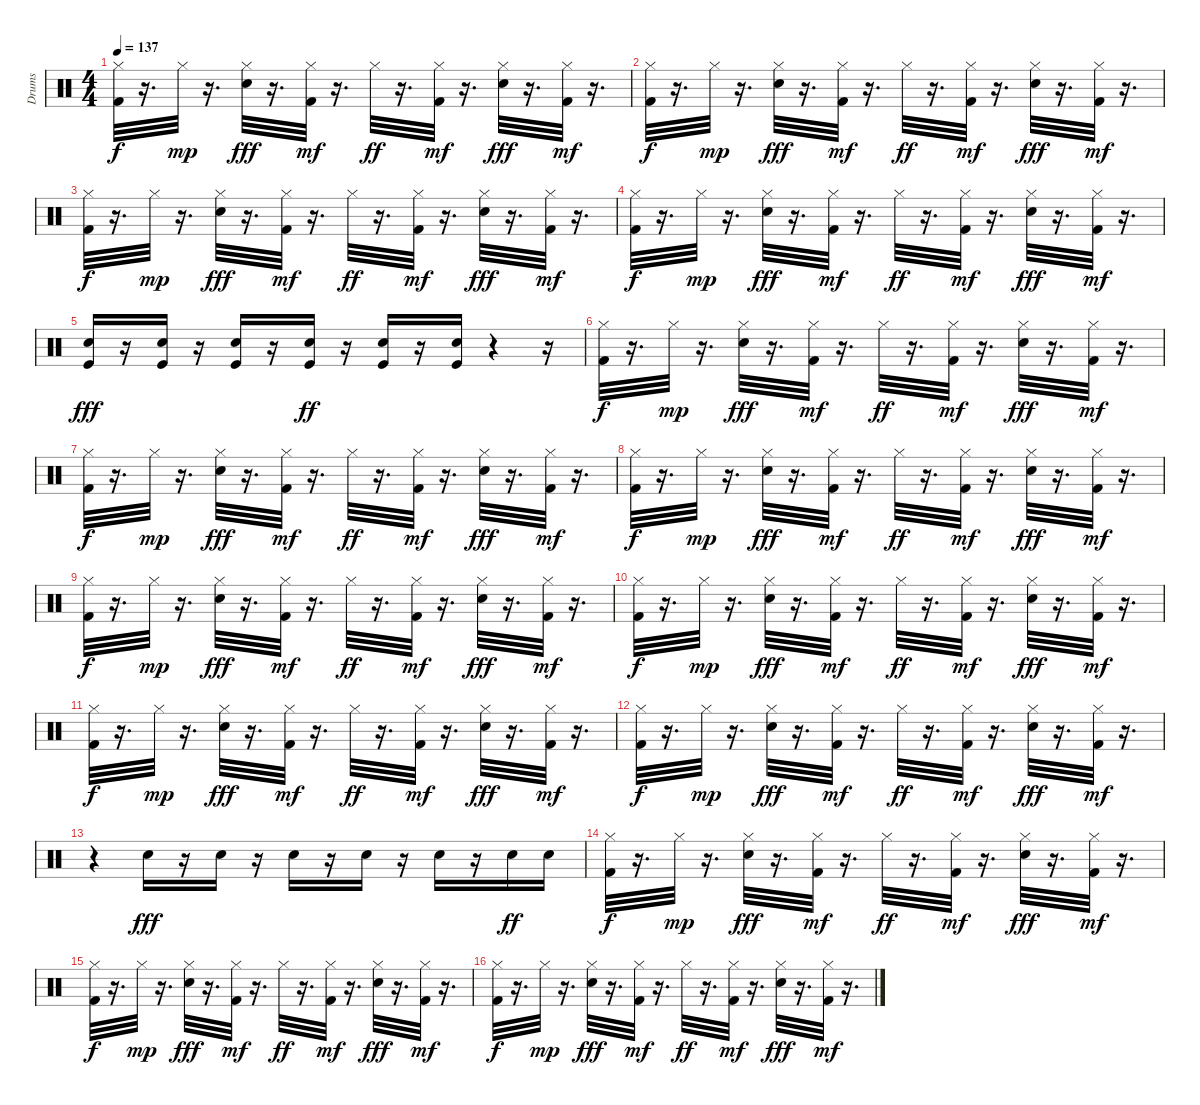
\track ("Drums" "Drums") {instrument percussion}
\staff {score}
\articulation defaults
\ts (4 4)
\tempo 137
\clef neutral
\ks c
("Hi-Hat (closed)" "Kick (hit) 2").32{dy f} r.16{d} "Hi-Hat (closed)".32{dy mp} r.16{d} ("Hi-Hat (closed)" "Snare (hit) 2").32{dy fff} r.16{d} ("Hi-Hat (closed)" "Kick (hit) 2").32{dy mf} r.16{d} "Hi-Hat (closed)".32{dy ff} r.16{d} ("Hi-Hat (closed)" "Kick (hit) 2").32{dy mf} r.16{d} ("Hi-Hat (closed)" "Snare (hit) 2").32{dy fff} r.16{d} ("Hi-Hat (closed)" "Kick (hit) 2").32{dy mf} r.16{d} |
("Hi-Hat (closed)" "Kick (hit) 2").32{dy f} r.16{d} "Hi-Hat (closed)".32{dy mp} r.16{d} ("Hi-Hat (closed)" "Snare (hit) 2").32{dy fff} r.16{d} ("Hi-Hat (closed)" "Kick (hit) 2").32{dy mf} r.16{d} "Hi-Hat (closed)".32{dy ff} r.16{d} ("Hi-Hat (closed)" "Kick (hit) 2").32{dy mf} r.16{d} ("Hi-Hat (closed)" "Snare (hit) 2").32{dy fff} r.16{d} ("Hi-Hat (closed)" "Kick (hit) 2").32{dy mf} r.16{d} |
("Hi-Hat (closed)" "Kick (hit) 2").32{dy f} r.16{d} "Hi-Hat (closed)".32{dy mp} r.16{d} ("Hi-Hat (closed)" "Snare (hit) 2").32{dy fff} r.16{d} ("Hi-Hat (closed)" "Kick (hit) 2").32{dy mf} r.16{d} "Hi-Hat (closed)".32{dy ff} r.16{d} ("Hi-Hat (closed)" "Kick (hit) 2").32{dy mf} r.16{d} ("Hi-Hat (closed)" "Snare (hit) 2").32{dy fff} r.16{d} ("Hi-Hat (closed)" "Kick (hit) 2").32{dy mf} r.16{d} |
("Hi-Hat (closed)" "Kick (hit) 2").32{dy f} r.16{d} "Hi-Hat (closed)".32{dy mp} r.16{d} ("Hi-Hat (closed)" "Snare (hit) 2").32{dy fff} r.16{d} ("Hi-Hat (closed)" "Kick (hit) 2").32{dy mf} r.16{d} "Hi-Hat (closed)".32{dy ff} r.16{d} ("Hi-Hat (closed)" "Kick (hit) 2").32{dy mf} r.16{d} ("Hi-Hat (closed)" "Snare (hit) 2").32{dy fff} r.16{d} ("Hi-Hat (closed)" "Kick (hit) 2").32{dy mf} r.16{d} |
("Kick (hit)" "Snare (hit) 2").16{dy fff} r.16 ("Kick (hit)" "Snare (hit) 2").16 r.16 ("Kick (hit)" "Snare (hit) 2").16 r.16 ("Kick (hit)" "Snare (hit) 2").16{dy ff} r.16 ("Kick (hit)" "Snare (hit) 2").16 r.16 ("Snare (hit) 2" "Kick (hit)").16 r.4 r.16 |
("Hi-Hat (closed)" "Kick (hit) 2").32{dy f} r.16{d} "Hi-Hat (closed)".32{dy mp} r.16{d} ("Hi-Hat (closed)" "Snare (hit) 2").32{dy fff} r.16{d} ("Hi-Hat (closed)" "Kick (hit) 2").32{dy mf} r.16{d} "Hi-Hat (closed)".32{dy ff} r.16{d} ("Hi-Hat (closed)" "Kick (hit) 2").32{dy mf} r.16{d} ("Hi-Hat (closed)" "Snare (hit) 2").32{dy fff} r.16{d} ("Hi-Hat (closed)" "Kick (hit) 2").32{dy mf} r.16{d} |
("Hi-Hat (closed)" "Kick (hit) 2").32{dy f} r.16{d} "Hi-Hat (closed)".32{dy mp} r.16{d} ("Hi-Hat (closed)" "Snare (hit) 2").32{dy fff} r.16{d} ("Hi-Hat (closed)" "Kick (hit) 2").32{dy mf} r.16{d} "Hi-Hat (closed)".32{dy ff} r.16{d} ("Hi-Hat (closed)" "Kick (hit) 2").32{dy mf} r.16{d} ("Hi-Hat (closed)" "Snare (hit) 2").32{dy fff} r.16{d} ("Hi-Hat (closed)" "Kick (hit) 2").32{dy mf} r.16{d} |
("Hi-Hat (closed)" "Kick (hit) 2").32{dy f} r.16{d} "Hi-Hat (closed)".32{dy mp} r.16{d} ("Hi-Hat (closed)" "Snare (hit) 2").32{dy fff} r.16{d} ("Hi-Hat (closed)" "Kick (hit) 2").32{dy mf} r.16{d} "Hi-Hat (closed)".32{dy ff} r.16{d} ("Hi-Hat (closed)" "Kick (hit) 2").32{dy mf} r.16{d} ("Hi-Hat (closed)" "Snare (hit) 2").32{dy fff} r.16{d} ("Hi-Hat (closed)" "Kick (hit) 2").32{dy mf} r.16{d} |
("Hi-Hat (closed)" "Kick (hit) 2").32{dy f} r.16{d} "Hi-Hat (closed)".32{dy mp} r.16{d} ("Hi-Hat (closed)" "Snare (hit) 2").32{dy fff} r.16{d} ("Hi-Hat (closed)" "Kick (hit) 2").32{dy mf} r.16{d} "Hi-Hat (closed)".32{dy ff} r.16{d} ("Hi-Hat (closed)" "Kick (hit) 2").32{dy mf} r.16{d} ("Hi-Hat (closed)" "Snare (hit) 2").32{dy fff} r.16{d} ("Hi-Hat (closed)" "Kick (hit) 2").32{dy mf} r.16{d} |
("Hi-Hat (closed)" "Kick (hit) 2").32{dy f} r.16{d} "Hi-Hat (closed)".32{dy mp} r.16{d} ("Hi-Hat (closed)" "Snare (hit) 2").32{dy fff} r.16{d} ("Hi-Hat (closed)" "Kick (hit) 2").32{dy mf} r.16{d} "Hi-Hat (closed)".32{dy ff} r.16{d} ("Hi-Hat (closed)" "Kick (hit) 2").32{dy mf} r.16{d} ("Hi-Hat (closed)" "Snare (hit) 2").32{dy fff} r.16{d} ("Hi-Hat (closed)" "Kick (hit) 2").32{dy mf} r.16{d} |
("Hi-Hat (closed)" "Kick (hit) 2").32{dy f} r.16{d} "Hi-Hat (closed)".32{dy mp} r.16{d} ("Hi-Hat (closed)" "Snare (hit) 2").32{dy fff} r.16{d} ("Hi-Hat (closed)" "Kick (hit) 2").32{dy mf} r.16{d} "Hi-Hat (closed)".32{dy ff} r.16{d} ("Hi-Hat (closed)" "Kick (hit) 2").32{dy mf} r.16{d} ("Hi-Hat (closed)" "Snare (hit) 2").32{dy fff} r.16{d} ("Hi-Hat (closed)" "Kick (hit) 2").32{dy mf} r.16{d} |
("Hi-Hat (closed)" "Kick (hit) 2").32{dy f} r.16{d} "Hi-Hat (closed)".32{dy mp} r.16{d} ("Hi-Hat (closed)" "Snare (hit) 2").32{dy fff} r.16{d} ("Hi-Hat (closed)" "Kick (hit) 2").32{dy mf} r.16{d} "Hi-Hat (closed)".32{dy ff} r.16{d} ("Hi-Hat (closed)" "Kick (hit) 2").32{dy mf} r.16{d} ("Hi-Hat (closed)" "Snare (hit) 2").32{dy fff} r.16{d} ("Hi-Hat (closed)" "Kick (hit) 2").32{dy mf} r.16{d} |
r.4 "Snare (hit) 2".16{dy fff} r.16 "Snare (hit) 2".16 r.16 "Snare (hit) 2".16 r.16 "Snare (hit) 2".16 r.16 "Snare (hit) 2".16 r.16 "Electric Snare (hit)".16{dy ff} "Snare (hit) 2".16 |
("Hi-Hat (closed)" "Kick (hit) 2").32{dy f} r.16{d} "Hi-Hat (closed)".32{dy mp} r.16{d} ("Hi-Hat (closed)" "Snare (hit) 2").32{dy fff} r.16{d} ("Hi-Hat (closed)" "Kick (hit) 2").32{dy mf} r.16{d} "Hi-Hat (closed)".32{dy ff} r.16{d} ("Hi-Hat (closed)" "Kick (hit) 2").32{dy mf} r.16{d} ("Hi-Hat (closed)" "Snare (hit) 2").32{dy fff} r.16{d} ("Hi-Hat (closed)" "Kick (hit) 2").32{dy mf} r.16{d} |
("Hi-Hat (closed)" "Kick (hit) 2").32{dy f} r.16{d} "Hi-Hat (closed)".32{dy mp} r.16{d} ("Hi-Hat (closed)" "Snare (hit) 2").32{dy fff} r.16{d} ("Hi-Hat (closed)" "Kick (hit) 2").32{dy mf} r.16{d} "Hi-Hat (closed)".32{dy ff} r.16{d} ("Hi-Hat (closed)" "Kick (hit) 2").32{dy mf} r.16{d} ("Hi-Hat (closed)" "Snare (hit) 2").32{dy fff} r.16{d} ("Hi-Hat (closed)" "Kick (hit) 2").32{dy mf} r.16{d} |
("Hi-Hat (closed)" "Kick (hit) 2").32{dy f} r.16{d} "Hi-Hat (closed)".32{dy mp} r.16{d} ("Hi-Hat (closed)" "Snare (hit) 2").32{dy fff} r.16{d} ("Hi-Hat (closed)" "Kick (hit) 2").32{dy mf} r.16{d} "Hi-Hat (closed)".32{dy ff} r.16{d} ("Hi-Hat (closed)" "Kick (hit) 2").32{dy mf} r.16{d} ("Hi-Hat (closed)" "Snare (hit) 2").32{dy fff} r.16{d} ("Hi-Hat (closed)" "Kick (hit) 2").32{dy mf} r.16{d}
